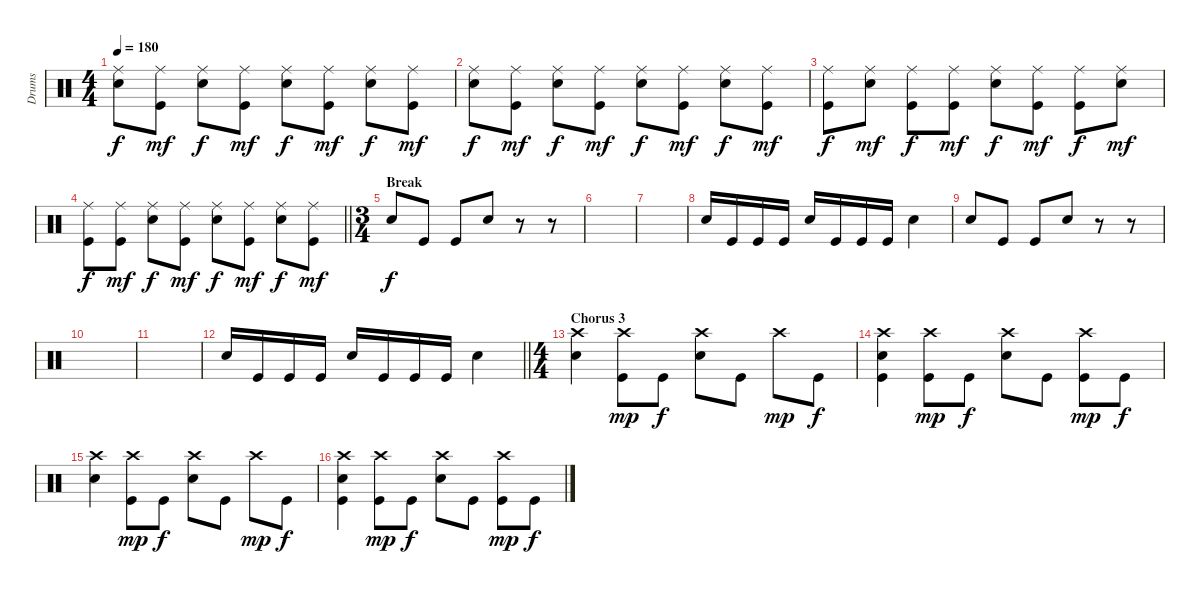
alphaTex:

\track ("Drums" "Drums") {instrument percussion}
\staff {score}
\articulation defaults
\ts (4 4)
\tempo 180
\clef neutral
\ks c
("Ride (middle)" "Snare (hit) 2").8{dy f} ("Ride (middle)" "Kick (hit)").8{dy mf} ("Ride (middle)" "Snare (hit) 2").8{dy f} ("Ride (middle)" "Kick (hit)").8{dy mf} ("Ride (middle)" "Snare (hit) 2").8{dy f} ("Ride (middle)" "Kick (hit)").8{dy mf} ("Ride (middle)" "Snare (hit) 2").8{dy f} ("Ride (middle)" "Kick (hit)").8{dy mf} |
("Ride (middle)" "Snare (hit) 2").8{dy f} ("Ride (middle)" "Kick (hit)").8{dy mf} ("Ride (middle)" "Snare (hit) 2").8{dy f} ("Ride (middle)" "Kick (hit)").8{dy mf} ("Ride (middle)" "Snare (hit) 2").8{dy f} ("Ride (middle)" "Kick (hit)").8{dy mf} ("Ride (middle)" "Snare (hit) 2").8{dy f} ("Ride (middle)" "Kick (hit)").8{dy mf} |
("Ride (middle)" "Kick (hit)").8{dy f} ("Ride (middle)" "Snare (hit) 2").8{dy mf} ("Ride (middle)" "Kick (hit)").8{dy f} ("Ride (middle)" "Kick (hit)").8{dy mf} ("Ride (middle)" "Snare (hit) 2").8{dy f} ("Ride (middle)" "Kick (hit)").8{dy mf} ("Ride (middle)" "Kick (hit)").8{dy f} ("Ride (middle)" "Snare (hit) 2").8{dy mf} |
\barLineRight lightlight
("Ride (middle)" "Kick (hit)").8{dy f} ("Ride (middle)" "Kick (hit)").8{dy mf} ("Ride (middle)" "Snare (hit) 2").8{dy f} ("Ride (middle)" "Kick (hit)").8{dy mf} ("Ride (middle)" "Snare (hit) 2").8{dy f} ("Ride (middle)" "Kick (hit)").8{dy mf} ("Ride (middle)" "Snare (hit) 2").8{dy f} ("Ride (middle)" "Kick (hit)").8{dy mf} |
\ts (3 4)
\section ("" "Break")
"Snare (hit) 2".8{dy f} "Kick (hit)".8 "Kick (hit)".8 "Snare (hit) 2".8 r.8 r.8 |
|
|
"Snare (hit) 2".16 "Kick (hit)".16 "Kick (hit)".16 "Kick (hit)".16 "Snare (hit) 2".16 "Kick (hit)".16 "Kick (hit)".16 "Kick (hit)".16 "Snare (hit) 2".4 |
"Snare (hit) 2".8 "Kick (hit)".8 "Kick (hit)".8 "Snare (hit) 2".8 r.8 r.8 |
|
|
\barLineRight lightlight "Snare (hit) 2".16 "Kick (hit)".16 "Kick (hit)".16 "Kick (hit)".16 "Snare (hit) 2".16 "Kick (hit)".16 "Kick (hit)".16 "Kick (hit)".16 "Snare (hit) 2".4
|
\ts (4 4)
\section ("" "Chorus 3")
("Crash high (hit)" "Snare (hit) 2").4 ("Crash high (hit)" "Kick (hit)").8{dy mp} "Kick (hit)".8{dy f} ("Snare (hit) 2" "Crash high (hit)").8 "Kick (hit)".8 "Crash high (hit)".8{dy mp} "Kick (hit)".8{dy f} |
("Snare (hit) 2" "Crash high (hit)" "Kick (hit)").4 ("Crash high (hit)" "Kick (hit)").8{dy mp} "Kick (hit)".8{dy f} ("Crash high (hit)" "Snare (hit) 2").8 "Kick (hit)".8 ("Crash high (hit)" "Kick (hit)").8{dy mp} "Kick (hit)".8{dy f} |
("Crash high (hit)" "Snare (hit) 2").4 ("Crash high (hit)" "Kick (hit)").8{dy mp} "Kick (hit)".8{dy f} ("Snare (hit) 2" "Crash high (hit)").8 "Kick (hit)".8 "Crash high (hit)".8{dy mp} "Kick (hit)".8{dy f} |
("Snare (hit) 2" "Crash high (hit)" "Kick (hit)").4 ("Crash high (hit)" "Kick (hit)").8{dy mp} "Kick (hit)".8{dy f} ("Crash high (hit)" "Snare (hit) 2").8 "Kick (hit)".8 ("Crash high (hit)" "Kick (hit)").8{dy mp} "Kick (hit)".8{dy f}
